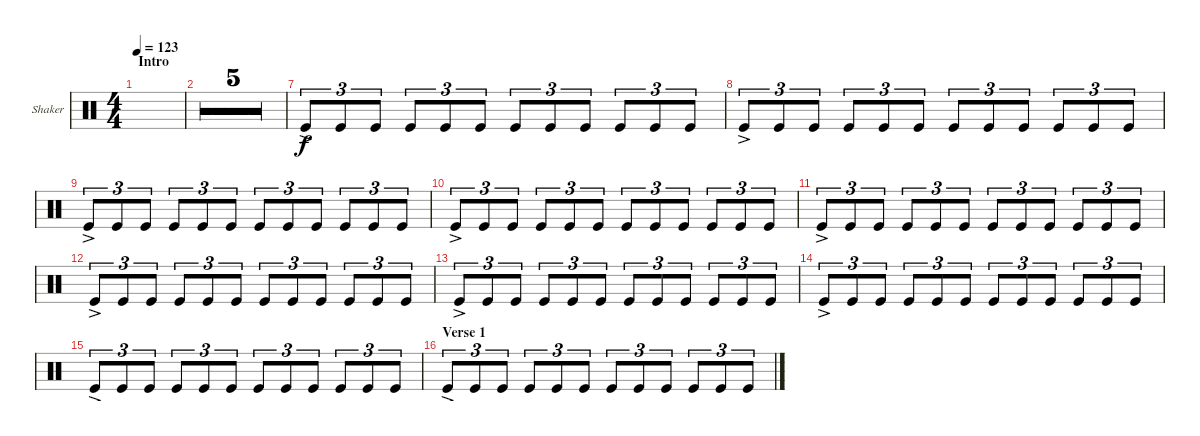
\defaultSystemsLayout 4
\bracketExtendMode groupsimilarinstruments
\firstSystemTrackNameOrientation horizontal
\otherSystemsTrackNameOrientation horizontal
\track ("Shaker" "Shaker") {multiBarRest instrument percussion}
\staff {score}
\articulation defaults
\ts (4 4)
\section ("" "Intro")
\tempo 123
\clef neutral
\ks c
|
|
|
|
|
|
"Kick (hit)"{ac}.8{tu (3 2)} "Kick (hit)".8{tu (3 2)} "Kick (hit)".8{tu (3 2)} "Kick (hit)".8{tu (3 2)} "Kick (hit)".8{tu (3 2)} "Kick (hit)".8{tu (3 2)} "Kick (hit)".8{tu (3 2)} "Kick (hit)".8{tu (3 2)} "Kick (hit)".8{tu (3 2)} "Kick (hit)".8{tu (3 2)} "Kick (hit)".8{tu (3 2)} "Kick (hit)".8{tu (3 2)} |
"Kick (hit)"{ac}.8{tu (3 2)} "Kick (hit)".8{tu (3 2)} "Kick (hit)".8{tu (3 2)} "Kick (hit)".8{tu (3 2)} "Kick (hit)".8{tu (3 2)} "Kick (hit)".8{tu (3 2)} "Kick (hit)".8{tu (3 2)} "Kick (hit)".8{tu (3 2)} "Kick (hit)".8{tu (3 2)} "Kick (hit)".8{tu (3 2)} "Kick (hit)".8{tu (3 2)} "Kick (hit)".8{tu (3 2)} |
"Kick (hit)"{ac}.8{tu (3 2)} "Kick (hit)".8{tu (3 2)} "Kick (hit)".8{tu (3 2)} "Kick (hit)".8{tu (3 2)} "Kick (hit)".8{tu (3 2)} "Kick (hit)".8{tu (3 2)} "Kick (hit)".8{tu (3 2)} "Kick (hit)".8{tu (3 2)} "Kick (hit)".8{tu (3 2)} "Kick (hit)".8{tu (3 2)} "Kick (hit)".8{tu (3 2)} "Kick (hit)".8{tu (3 2)} |
"Kick (hit)"{ac}.8{tu (3 2)} "Kick (hit)".8{tu (3 2)} "Kick (hit)".8{tu (3 2)} "Kick (hit)".8{tu (3 2)} "Kick (hit)".8{tu (3 2)} "Kick (hit)".8{tu (3 2)} "Kick (hit)".8{tu (3 2)} "Kick (hit)".8{tu (3 2)} "Kick (hit)".8{tu (3 2)} "Kick (hit)".8{tu (3 2)} "Kick (hit)".8{tu (3 2)} "Kick (hit)".8{tu (3 2)} |
"Kick (hit)"{ac}.8{tu (3 2)} "Kick (hit)".8{tu (3 2)} "Kick (hit)".8{tu (3 2)} "Kick (hit)".8{tu (3 2)} "Kick (hit)".8{tu (3 2)} "Kick (hit)".8{tu (3 2)} "Kick (hit)".8{tu (3 2)} "Kick (hit)".8{tu (3 2)} "Kick (hit)".8{tu (3 2)} "Kick (hit)".8{tu (3 2)} "Kick (hit)".8{tu (3 2)} "Kick (hit)".8{tu (3 2)} |
"Kick (hit)"{ac}.8{tu (3 2)} "Kick (hit)".8{tu (3 2)} "Kick (hit)".8{tu (3 2)} "Kick (hit)".8{tu (3 2)} "Kick (hit)".8{tu (3 2)} "Kick (hit)".8{tu (3 2)} "Kick (hit)".8{tu (3 2)} "Kick (hit)".8{tu (3 2)} "Kick (hit)".8{tu (3 2)} "Kick (hit)".8{tu (3 2)} "Kick (hit)".8{tu (3 2)} "Kick (hit)".8{tu (3 2)} |
"Kick (hit)"{ac}.8{tu (3 2)} "Kick (hit)".8{tu (3 2)} "Kick (hit)".8{tu (3 2)} "Kick (hit)".8{tu (3 2)} "Kick (hit)".8{tu (3 2)} "Kick (hit)".8{tu (3 2)} "Kick (hit)".8{tu (3 2)} "Kick (hit)".8{tu (3 2)} "Kick (hit)".8{tu (3 2)} "Kick (hit)".8{tu (3 2)} "Kick (hit)".8{tu (3 2)} "Kick (hit)".8{tu (3 2)} |
"Kick (hit)"{ac}.8{tu (3 2)} "Kick (hit)".8{tu (3 2)} "Kick (hit)".8{tu (3 2)} "Kick (hit)".8{tu (3 2)} "Kick (hit)".8{tu (3 2)} "Kick (hit)".8{tu (3 2)} "Kick (hit)".8{tu (3 2)} "Kick (hit)".8{tu (3 2)} "Kick (hit)".8{tu (3 2)} "Kick (hit)".8{tu (3 2)} "Kick (hit)".8{tu (3 2)} "Kick (hit)".8{tu (3 2)} |
"Kick (hit)"{ac}.8{tu (3 2)} "Kick (hit)".8{tu (3 2)} "Kick (hit)".8{tu (3 2)} "Kick (hit)".8{tu (3 2)} "Kick (hit)".8{tu (3 2)} "Kick (hit)".8{tu (3 2)} "Kick (hit)".8{tu (3 2)} "Kick (hit)".8{tu (3 2)} "Kick (hit)".8{tu (3 2)} "Kick (hit)".8{tu (3 2)} "Kick (hit)".8{tu (3 2)} "Kick (hit)".8{tu (3 2)} |
\section ("" "Verse 1")
"Kick (hit)"{ac}.8{tu (3 2)} "Kick (hit)".8{tu (3 2)} "Kick (hit)".8{tu (3 2)} "Kick (hit)".8{tu (3 2)} "Kick (hit)".8{tu (3 2)} "Kick (hit)".8{tu (3 2)} "Kick (hit)".8{tu (3 2)} "Kick (hit)".8{tu (3 2)} "Kick (hit)".8{tu (3 2)} "Kick (hit)".8{tu (3 2)} "Kick (hit)".8{tu (3 2)} "Kick (hit)".8{tu (3 2)}
